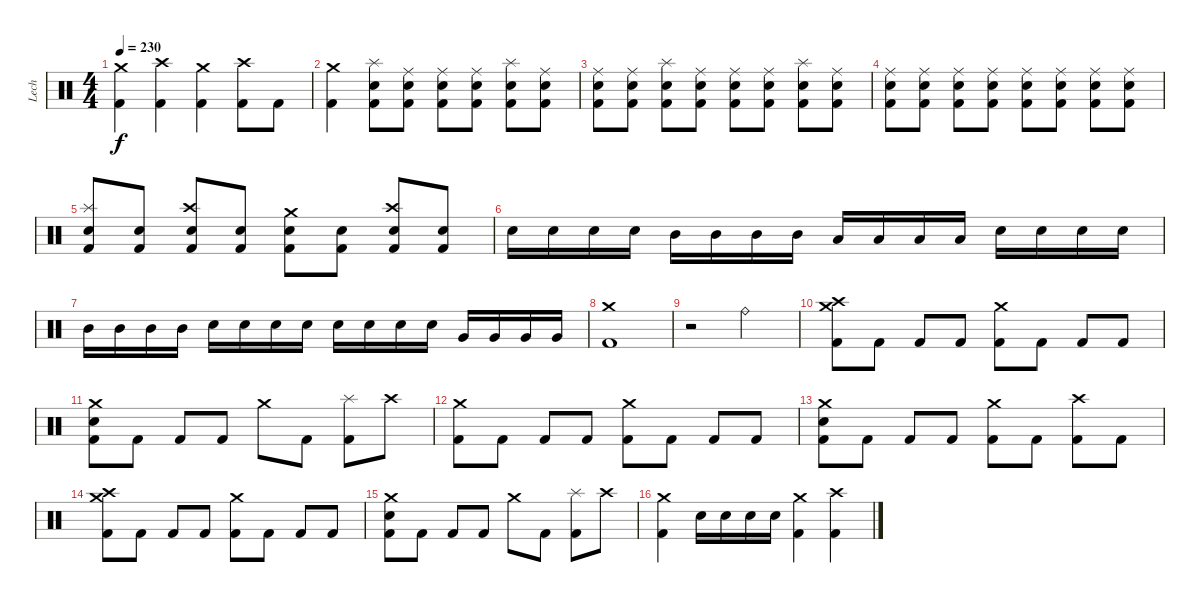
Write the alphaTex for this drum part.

\track ("Lech" "Lech") {instrument percussion}
\staff {score}
\articulation defaults
\ts (4 4)
\tempo 230
\clef neutral
\ks c
("Crash medium (hit)" "Kick (hit) 2").4{dy f} ("Crash high (hit)" "Kick (hit) 2").4 ("Crash medium (hit)" "Kick (hit) 2").4 ("Crash high (hit)" "Kick (hit) 2").8 "Kick (hit) 2".8 |
("Crash medium (hit)" "Kick (hit) 2").4 ("Splash (hit)" "Electric Snare (hit)" "Kick (hit) 2").8 ("Ride (middle)" "Electric Snare (hit)" "Kick (hit) 2").8 ("Ride (middle)" "Electric Snare (hit)" "Kick (hit) 2").8 ("Ride (middle)" "Electric Snare (hit)" "Kick (hit) 2").8 ("Splash (hit)" "Electric Snare (hit)" "Kick (hit) 2").8 ("Ride (middle)" "Electric Snare (hit)" "Kick (hit) 2").8 |
("Ride (middle)" "Electric Snare (hit)" "Kick (hit) 2").8 ("Ride (middle)" "Electric Snare (hit)" "Kick (hit) 2").8 ("Splash (hit)" "Electric Snare (hit)" "Kick (hit) 2").8 ("Ride (middle)" "Electric Snare (hit)" "Kick (hit) 2").8 ("Ride (middle)" "Electric Snare (hit)" "Kick (hit) 2").8 ("Ride (middle)" "Electric Snare (hit)" "Kick (hit) 2").8 ("Splash (hit)" "Electric Snare (hit)" "Kick (hit) 2").8 ("Ride (middle)" "Electric Snare (hit)" "Kick (hit) 2").8 |
("Ride (middle)" "Electric Snare (hit)" "Kick (hit) 2").8 ("Ride (middle)" "Electric Snare (hit)" "Kick (hit) 2").8 ("Ride (middle)" "Electric Snare (hit)" "Kick (hit) 2").8 ("Ride (middle)" "Electric Snare (hit)" "Kick (hit) 2").8 ("Ride (middle)" "Electric Snare (hit)" "Kick (hit) 2").8 ("Ride (middle)" "Electric Snare (hit)" "Kick (hit) 2").8 ("Ride (middle)" "Electric Snare (hit)" "Kick (hit) 2").8 ("Ride (middle)" "Electric Snare (hit)" "Kick (hit) 2").8 |
("Splash (hit)" "Electric Snare (hit)" "Kick (hit) 2").8 ("Electric Snare (hit)" "Kick (hit) 2").8 ("Crash high (hit)" "Electric Snare (hit)" "Kick (hit) 2").8 ("Electric Snare (hit)" "Kick (hit) 2").8 ("Crash medium (hit)" "Electric Snare (hit)" "Kick (hit) 2").8 ("Electric Snare (hit)" "Kick (hit) 2").8 ("Crash high (hit)" "Electric Snare (hit)" "Kick (hit) 2").8 ("Electric Snare (hit)" "Kick (hit) 2").8 |
"Electric Snare (hit)".16 "Electric Snare (hit)".16 "Electric Snare (hit)".16 "Electric Snare (hit)".16 "Mid Tom (hit)".16 "Mid Tom (hit)".16 "Mid Tom (hit)".16 "Mid Tom (hit)".16 "Low Tom (hit)".16 "Low Tom (hit)".16 "Low Tom (hit)".16 "Low Tom (hit)".16 "Electric Snare (hit)".16 "Electric Snare (hit)".16 "Electric Snare (hit)".16 "Electric Snare (hit)".16 |
"Mid Tom (hit)".16 "Mid Tom (hit)".16 "Mid Tom (hit)".16 "Mid Tom (hit)".16 "Electric Snare (hit)".16 "Electric Snare (hit)".16 "Electric Snare (hit)".16 "Electric Snare (hit)".16 "Electric Snare (hit)".16 "Electric Snare (hit)".16 "Electric Snare (hit)".16 "Electric Snare (hit)".16 "Very Low Tom (hit)".16 "Very Low Tom (hit)".16 "Very Low Tom (hit)".16 "Very Low Tom (hit)".16 |
("Crash medium (hit)" "Kick (hit) 2").1 |
r.2 "Ride (bell)".2 |
("Crash medium (hit)" "Crash high (hit)" "Kick (hit) 2").8 "Kick (hit) 2".8 "Kick (hit) 2".8 "Kick (hit) 2".8 ("Crash medium (hit)" "Kick (hit) 2").8 "Kick (hit) 2".8 "Kick (hit) 2".8 "Kick (hit) 2".8 |
("Crash medium (hit)" "Electric Snare (hit)" "Kick (hit) 2").8 "Kick (hit) 2".8 "Kick (hit) 2".8 "Kick (hit) 2".8 "Crash medium (hit)".8 "Kick (hit) 2".8 ("Splash (hit)" "Kick (hit) 2").8 "Crash high (hit)".8 |
("Crash medium (hit)" "Kick (hit) 2").8 "Kick (hit) 2".8 "Kick (hit) 2".8 "Kick (hit) 2".8 ("Crash medium (hit)" "Kick (hit) 2").8 "Kick (hit) 2".8 "Kick (hit) 2".8 "Kick (hit) 2".8 |
("Crash medium (hit)" "Electric Snare (hit)" "Kick (hit) 2").8 "Kick (hit) 2".8 "Kick (hit) 2".8 "Kick (hit) 2".8 ("Crash medium (hit)" "Kick (hit) 2").8 "Kick (hit) 2".8 ("Crash high (hit)" "Kick (hit) 2").8 "Kick (hit) 2".8 |
("Crash medium (hit)" "Crash high (hit)" "Kick (hit) 2").8 "Kick (hit) 2".8 "Kick (hit) 2".8 "Kick (hit) 2".8 ("Crash medium (hit)" "Kick (hit) 2").8 "Kick (hit) 2".8 "Kick (hit) 2".8 "Kick (hit) 2".8 |
("Crash medium (hit)" "Electric Snare (hit)" "Kick (hit) 2").8 "Kick (hit) 2".8 "Kick (hit) 2".8 "Kick (hit) 2".8 "Crash medium (hit)".8 "Kick (hit) 2".8 ("Splash (hit)" "Kick (hit) 2").8 "Crash high (hit)".8 |
("Crash medium (hit)" "Kick (hit) 2").4 "Electric Snare (hit)".16 "Electric Snare (hit)".16 "Electric Snare (hit)".16 "Electric Snare (hit)".16 ("Crash medium (hit)" "Kick (hit) 2").4 ("Crash high (hit)" "Kick (hit) 2").4
